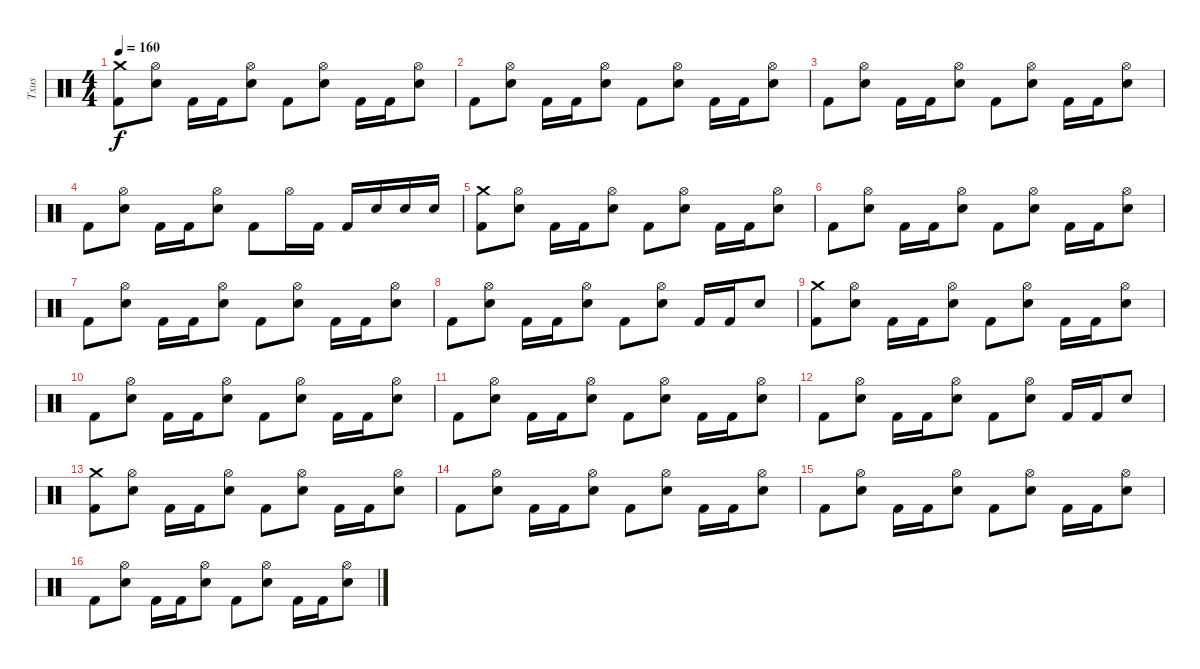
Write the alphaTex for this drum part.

\track ("Txus" "Txus") {instrument percussion}
\staff {score}
\articulation defaults
\ts (4 4)
\tempo 160
\clef neutral
\ks c
("Crash medium (hit)" "Kick (hit) 2").8{dy f} ("Hi-Hat (open)" "Snare (hit) 2").8 "Kick (hit) 2".16 "Kick (hit) 2".16 ("Hi-Hat (open)" "Snare (hit) 2").8 "Kick (hit) 2".8 ("Hi-Hat (open)" "Snare (hit) 2").8 "Kick (hit) 2".16 "Kick (hit) 2".16 ("Hi-Hat (open)" "Snare (hit) 2").8 |
"Kick (hit) 2".8 ("Hi-Hat (open)" "Snare (hit) 2").8 "Kick (hit) 2".16 "Kick (hit) 2".16 ("Hi-Hat (open)" "Snare (hit) 2").8 "Kick (hit) 2".8 ("Hi-Hat (open)" "Snare (hit) 2").8 "Kick (hit) 2".16 "Kick (hit) 2".16 ("Hi-Hat (open)" "Snare (hit) 2").8 |
"Kick (hit) 2".8 ("Hi-Hat (open)" "Snare (hit) 2").8 "Kick (hit) 2".16 "Kick (hit) 2".16 ("Hi-Hat (open)" "Snare (hit) 2").8 "Kick (hit) 2".8 ("Hi-Hat (open)" "Snare (hit) 2").8 "Kick (hit) 2".16 "Kick (hit) 2".16 ("Hi-Hat (open)" "Snare (hit) 2").8 |
"Kick (hit) 2".8 ("Hi-Hat (open)" "Snare (hit) 2").8 "Kick (hit) 2".16 "Kick (hit) 2".16 ("Hi-Hat (open)" "Snare (hit) 2").8 "Kick (hit) 2".8 "Hi-Hat (open)".16 "Kick (hit) 2".16 "Kick (hit) 2".16 "Snare (hit) 2".16 "Snare (hit) 2".16 "Snare (hit) 2".16 |
("Crash medium (hit)" "Kick (hit) 2").8 ("Hi-Hat (open)" "Snare (hit) 2").8 "Kick (hit) 2".16 "Kick (hit) 2".16 ("Hi-Hat (open)" "Snare (hit) 2").8 "Kick (hit) 2".8 ("Hi-Hat (open)" "Snare (hit) 2").8 "Kick (hit) 2".16 "Kick (hit) 2".16 ("Hi-Hat (open)" "Snare (hit) 2").8 |
"Kick (hit) 2".8 ("Hi-Hat (open)" "Snare (hit) 2").8 "Kick (hit) 2".16 "Kick (hit) 2".16 ("Hi-Hat (open)" "Snare (hit) 2").8 "Kick (hit) 2".8 ("Hi-Hat (open)" "Snare (hit) 2").8 "Kick (hit) 2".16 "Kick (hit) 2".16 ("Hi-Hat (open)" "Snare (hit) 2").8 |
"Kick (hit) 2".8 ("Hi-Hat (open)" "Snare (hit) 2").8 "Kick (hit) 2".16 "Kick (hit) 2".16 ("Hi-Hat (open)" "Snare (hit) 2").8 "Kick (hit) 2".8 ("Hi-Hat (open)" "Snare (hit) 2").8 "Kick (hit) 2".16 "Kick (hit) 2".16 ("Hi-Hat (open)" "Snare (hit) 2").8 |
"Kick (hit) 2".8 ("Hi-Hat (open)" "Snare (hit) 2").8 "Kick (hit) 2".16 "Kick (hit) 2".16 ("Hi-Hat (open)" "Snare (hit) 2").8 "Kick (hit) 2".8 ("Hi-Hat (open)" "Snare (hit) 2").8 "Kick (hit) 2".16 "Kick (hit) 2".16 "Snare (hit) 2".8 |
("Crash medium (hit)" "Kick (hit) 2").8 ("Hi-Hat (open)" "Snare (hit) 2").8 "Kick (hit) 2".16 "Kick (hit) 2".16 ("Hi-Hat (open)" "Snare (hit) 2").8 "Kick (hit) 2".8 ("Hi-Hat (open)" "Snare (hit) 2").8 "Kick (hit) 2".16 "Kick (hit) 2".16 ("Hi-Hat (open)" "Snare (hit) 2").8 |
"Kick (hit) 2".8 ("Hi-Hat (open)" "Snare (hit) 2").8 "Kick (hit) 2".16 "Kick (hit) 2".16 ("Hi-Hat (open)" "Snare (hit) 2").8 "Kick (hit) 2".8 ("Hi-Hat (open)" "Snare (hit) 2").8 "Kick (hit) 2".16 "Kick (hit) 2".16 ("Hi-Hat (open)" "Snare (hit) 2").8 |
"Kick (hit) 2".8 ("Hi-Hat (open)" "Snare (hit) 2").8 "Kick (hit) 2".16 "Kick (hit) 2".16 ("Hi-Hat (open)" "Snare (hit) 2").8 "Kick (hit) 2".8 ("Hi-Hat (open)" "Snare (hit) 2").8 "Kick (hit) 2".16 "Kick (hit) 2".16 ("Hi-Hat (open)" "Snare (hit) 2").8 |
"Kick (hit) 2".8 ("Hi-Hat (open)" "Snare (hit) 2").8 "Kick (hit) 2".16 "Kick (hit) 2".16 ("Hi-Hat (open)" "Snare (hit) 2").8 "Kick (hit) 2".8 ("Hi-Hat (open)" "Snare (hit) 2").8 "Kick (hit) 2".16 "Kick (hit) 2".16 "Snare (hit) 2".8 |
("Crash medium (hit)" "Kick (hit) 2").8 ("Hi-Hat (open)" "Snare (hit) 2").8 "Kick (hit) 2".16 "Kick (hit) 2".16 ("Hi-Hat (open)" "Snare (hit) 2").8 "Kick (hit) 2".8 ("Hi-Hat (open)" "Snare (hit) 2").8 "Kick (hit) 2".16 "Kick (hit) 2".16 ("Hi-Hat (open)" "Snare (hit) 2").8 |
"Kick (hit) 2".8 ("Hi-Hat (open)" "Snare (hit) 2").8 "Kick (hit) 2".16 "Kick (hit) 2".16 ("Hi-Hat (open)" "Snare (hit) 2").8 "Kick (hit) 2".8 ("Hi-Hat (open)" "Snare (hit) 2").8 "Kick (hit) 2".16 "Kick (hit) 2".16 ("Hi-Hat (open)" "Snare (hit) 2").8 |
"Kick (hit) 2".8 ("Hi-Hat (open)" "Snare (hit) 2").8 "Kick (hit) 2".16 "Kick (hit) 2".16 ("Hi-Hat (open)" "Snare (hit) 2").8 "Kick (hit) 2".8 ("Hi-Hat (open)" "Snare (hit) 2").8 "Kick (hit) 2".16 "Kick (hit) 2".16 ("Hi-Hat (open)" "Snare (hit) 2").8 |
"Kick (hit) 2".8 ("Hi-Hat (open)" "Snare (hit) 2").8 "Kick (hit) 2".16 "Kick (hit) 2".16 ("Hi-Hat (open)" "Snare (hit) 2").8 "Kick (hit) 2".8 ("Hi-Hat (open)" "Snare (hit) 2").8 "Kick (hit) 2".16 "Kick (hit) 2".16 ("Hi-Hat (open)" "Snare (hit) 2").8
